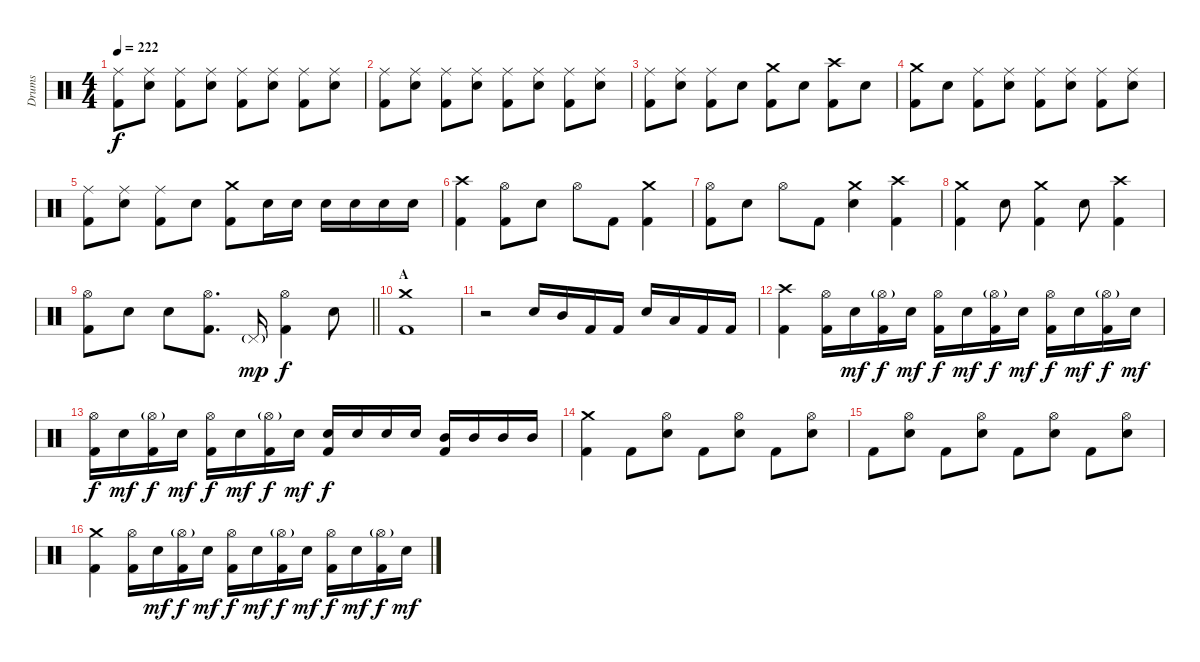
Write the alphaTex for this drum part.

\track ("Drums" "Drums") {instrument percussion}
\staff {score}
\articulation defaults
\ts (4 4)
\tempo 222
\clef neutral
\ks c
("Ride (middle)" "Kick (hit) 2").8{dy f} ("Ride (middle)" "Electric Snare (hit)").8 ("Ride (middle)" "Kick (hit) 2").8 ("Ride (middle)" "Electric Snare (hit)").8 ("Ride (middle)" "Kick (hit) 2").8 ("Ride (middle)" "Electric Snare (hit)").8 ("Ride (middle)" "Kick (hit) 2").8 ("Ride (middle)" "Electric Snare (hit)").8 |
("Ride (middle)" "Kick (hit) 2").8 ("Ride (middle)" "Electric Snare (hit)").8 ("Ride (middle)" "Kick (hit) 2").8 ("Ride (middle)" "Electric Snare (hit)").8 ("Ride (middle)" "Kick (hit) 2").8 ("Ride (middle)" "Electric Snare (hit)").8 ("Ride (middle)" "Kick (hit) 2").8 ("Ride (middle)" "Electric Snare (hit)").8 |
("Ride (middle)" "Kick (hit) 2").8 ("Ride (middle)" "Electric Snare (hit)").8 ("Ride (middle)" "Kick (hit) 2").8 "Electric Snare (hit)".8 ("Crash medium (hit)" "Kick (hit) 2").8 "Electric Snare (hit)".8 ("Crash high (hit)" "Kick (hit) 2").8 "Electric Snare (hit)".8 |
("Crash medium (hit)" "Kick (hit) 2").8 "Electric Snare (hit)".8 ("Ride (middle)" "Kick (hit) 2").8 ("Ride (middle)" "Electric Snare (hit)").8 ("Ride (middle)" "Kick (hit) 2").8 ("Ride (middle)" "Electric Snare (hit)").8 ("Ride (middle)" "Kick (hit) 2").8 ("Ride (middle)" "Electric Snare (hit)").8 |
("Ride (middle)" "Kick (hit) 2").8 ("Ride (middle)" "Electric Snare (hit)").8 ("Ride (middle)" "Kick (hit) 2").8 "Electric Snare (hit)".8 ("Crash medium (hit)" "Kick (hit) 2").8 "Electric Snare (hit)".16 "Electric Snare (hit)".16 "Electric Snare (hit)".16 "Electric Snare (hit)".16 "Electric Snare (hit)".16 "Electric Snare (hit)".16 |
("Crash high (hit)" "Kick (hit) 2").4 ("Hi-Hat (open)" "Kick (hit) 2").8 "Electric Snare (hit)".8 "Hi-Hat (open)".8 "Kick (hit) 2".8 ("Crash medium (hit)" "Kick (hit) 2").4 |
("Hi-Hat (open)" "Kick (hit) 2").8 "Electric Snare (hit)".8 "Hi-Hat (open)".8 "Kick (hit) 2".8 ("Crash medium (hit)" "Electric Snare (hit)").4 ("Crash high (hit)" "Kick (hit) 2").4 |
("Crash medium (hit)" "Kick (hit) 2").4 "Electric Snare (hit)".8 ("Crash medium (hit)" "Kick (hit) 2").4 "Electric Snare (hit)".8 ("Crash high (hit)" "Kick (hit) 2").4 |
\barLineRight lightlight
("Hi-Hat (open)" "Kick (hit) 2").8 "Electric Snare (hit)".8 "Electric Snare (hit)".8 ("Hi-Hat (open)" "Kick (hit) 2").8{d} "Pedal Hi-Hat (hit)"{g}.16{dy mp} ("Hi-Hat (open)" "Kick (hit) 2").4{dy f} "Electric Snare (hit)".8 |
\section ("" "A")
("Crash medium (hit)" "Kick (hit) 2").1 |
r.2 "Electric Snare (hit)".16 "Mid Tom (hit)".16 "Kick (hit) 2".16 "Kick (hit) 2".16 "Electric Snare (hit)".16 "Low Tom (hit)".16 "Kick (hit) 2".16 "Kick (hit) 2".16 |
("Crash high (hit)" "Kick (hit) 2").4 ("Hi-Hat (open)" "Kick (hit) 2").16 "Electric Snare (hit)".16{dy mf} ("Hi-Hat (open)"{g} "Kick (hit) 2").16{dy f} "Electric Snare (hit)".16{dy mf} ("Hi-Hat (open)" "Kick (hit) 2").16{dy f} "Electric Snare (hit)".16{dy mf} ("Hi-Hat (open)"{g} "Kick (hit) 2").16{dy f} "Electric Snare (hit)".16{dy mf} ("Hi-Hat (open)" "Kick (hit) 2").16{dy f} "Electric Snare (hit)".16{dy mf} ("Hi-Hat (open)"{g} "Kick (hit) 2").16{dy f} "Electric Snare (hit)".16{dy mf} |
("Hi-Hat (open)" "Kick (hit) 2").16{dy f} "Electric Snare (hit)".16{dy mf} ("Hi-Hat (open)"{g} "Kick (hit) 2").16{dy f} "Electric Snare (hit)".16{dy mf} ("Hi-Hat (open)" "Kick (hit) 2").16{dy f} "Electric Snare (hit)".16{dy mf} ("Hi-Hat (open)"{g} "Kick (hit) 2").16{dy f} "Electric Snare (hit)".16{dy mf} ("Electric Snare (hit)" "Kick (hit) 2").16{dy f} "Electric Snare (hit)".16 "Electric Snare (hit)".16 "Electric Snare (hit)".16 ("Mid Tom (hit)" "Kick (hit) 2").16 "Mid Tom (hit)".16 "Mid Tom (hit)".16 "Mid Tom (hit)".16 |
("Crash medium (hit)" "Kick (hit) 2").4 "Kick (hit) 2".8 ("Hi-Hat (open)" "Electric Snare (hit)").8 "Kick (hit) 2".8 ("Hi-Hat (open)" "Electric Snare (hit)").8 "Kick (hit) 2".8 ("Hi-Hat (open)" "Electric Snare (hit)").8 |
"Kick (hit) 2".8 ("Hi-Hat (open)" "Electric Snare (hit)").8 "Kick (hit) 2".8 ("Hi-Hat (open)" "Electric Snare (hit)").8 "Kick (hit) 2".8 ("Hi-Hat (open)" "Electric Snare (hit)").8 "Kick (hit) 2".8 ("Hi-Hat (open)" "Electric Snare (hit)").8 |
("Crash medium (hit)" "Kick (hit) 2").4 ("Hi-Hat (open)" "Kick (hit) 2").16 "Electric Snare (hit)".16{dy mf} ("Hi-Hat (open)"{g} "Kick (hit) 2").16{dy f} "Electric Snare (hit)".16{dy mf} ("Hi-Hat (open)" "Kick (hit) 2").16{dy f} "Electric Snare (hit)".16{dy mf} ("Hi-Hat (open)"{g} "Kick (hit) 2").16{dy f} "Electric Snare (hit)".16{dy mf} ("Hi-Hat (open)" "Kick (hit) 2").16{dy f} "Electric Snare (hit)".16{dy mf} ("Hi-Hat (open)"{g} "Kick (hit) 2").16{dy f} "Electric Snare (hit)".16{dy mf}
